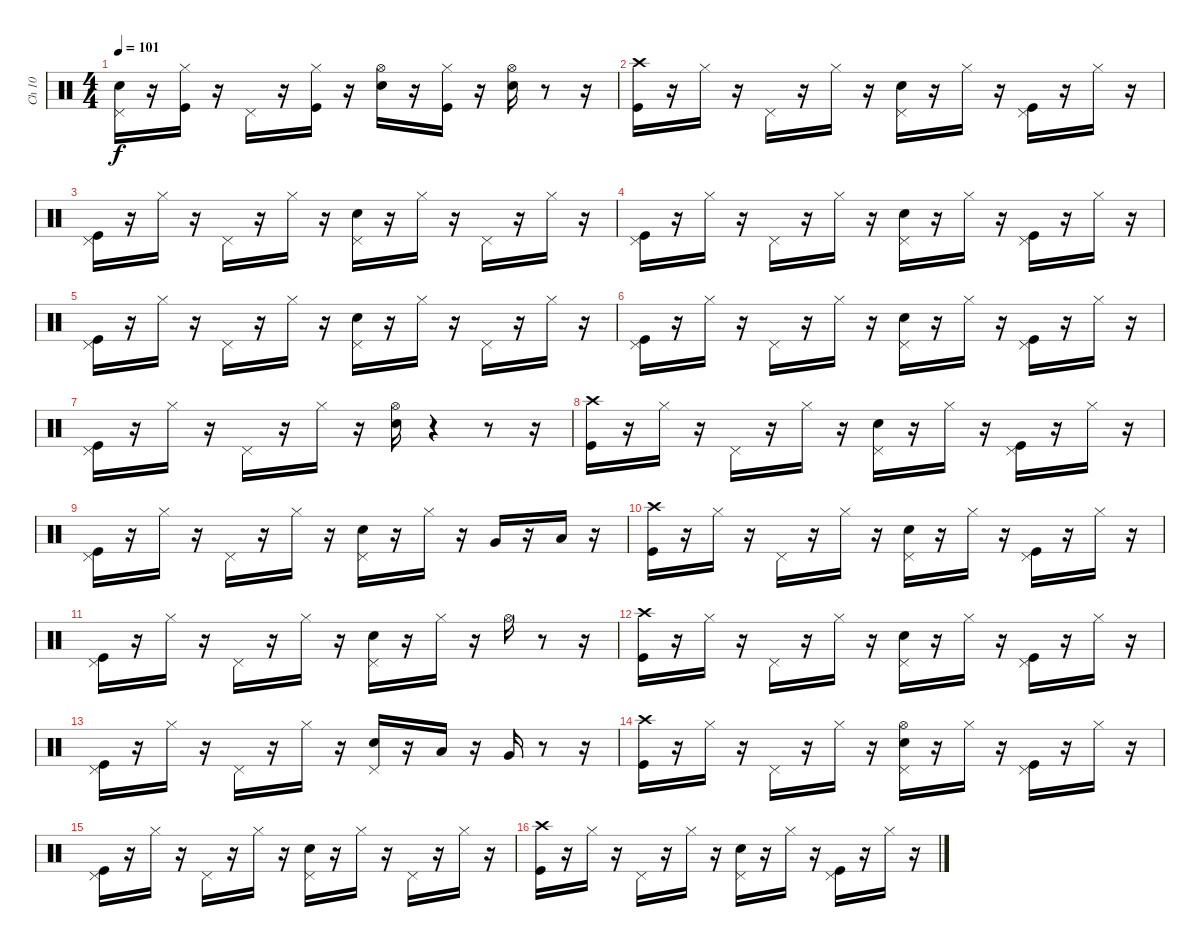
\track ("Ch 10   " "Ch 10   ") {instrument percussion}
\staff {score}
\articulation defaults
\ts (4 4)
\tempo 101
\clef neutral
\ks c
("Snare (hit) 2" "Pedal Hi-Hat (hit)").16{dy f} r.16 ("Kick (hit)" "Hi-Hat (closed)").16 r.16 "Pedal Hi-Hat (hit)".16 r.16 ("Kick (hit)" "Hi-Hat (closed)").16 r.16 ("Snare (hit) 2" "Hi-Hat (open)").16 r.16 ("Kick (hit)" "Hi-Hat (closed)").16 r.16 ("Snare (hit) 2" "Hi-Hat (open)").16 r.8 r.16 |
("Kick (hit)" "Crash high (hit)").16 r.16 "Hi-Hat (closed)".16 r.16 "Pedal Hi-Hat (hit)".16 r.16 "Hi-Hat (closed)".16 r.16 ("Snare (hit) 2" "Pedal Hi-Hat (hit)").16 r.16 "Hi-Hat (closed)".16 r.16 ("Pedal Hi-Hat (hit)" "Kick (hit)").16 r.16 "Hi-Hat (closed)".16 r.16 |
("Kick (hit)" "Pedal Hi-Hat (hit)").16 r.16 "Hi-Hat (closed)".16 r.16 "Pedal Hi-Hat (hit)".16 r.16 "Hi-Hat (closed)".16 r.16 ("Snare (hit) 2" "Pedal Hi-Hat (hit)").16 r.16 "Hi-Hat (closed)".16 r.16 "Pedal Hi-Hat (hit)".16 r.16 "Hi-Hat (closed)".16 r.16 |
("Kick (hit)" "Pedal Hi-Hat (hit)").16 r.16 "Hi-Hat (closed)".16 r.16 "Pedal Hi-Hat (hit)".16 r.16 "Hi-Hat (closed)".16 r.16 ("Snare (hit) 2" "Pedal Hi-Hat (hit)").16 r.16 "Hi-Hat (closed)".16 r.16 ("Kick (hit)" "Pedal Hi-Hat (hit)").16 r.16 "Hi-Hat (closed)".16 r.16 |
("Pedal Hi-Hat (hit)" "Kick (hit)").16 r.16 "Hi-Hat (closed)".16 r.16 "Pedal Hi-Hat (hit)".16 r.16 "Hi-Hat (closed)".16 r.16 ("Pedal Hi-Hat (hit)" "Snare (hit) 2").16 r.16 "Hi-Hat (closed)".16 r.16 "Pedal Hi-Hat (hit)".16 r.16 "Hi-Hat (closed)".16 r.16 |
("Kick (hit)" "Pedal Hi-Hat (hit)").16 r.16 "Hi-Hat (closed)".16 r.16 "Pedal Hi-Hat (hit)".16 r.16 "Hi-Hat (closed)".16 r.16 ("Snare (hit) 2" "Pedal Hi-Hat (hit)").16 r.16 "Hi-Hat (closed)".16 r.16 ("Pedal Hi-Hat (hit)" "Kick (hit)").16 r.16 "Hi-Hat (closed)".16 r.16 |
("Pedal Hi-Hat (hit)" "Kick (hit)").16 r.16 "Hi-Hat (closed)".16 r.16 "Pedal Hi-Hat (hit)".16 r.16 "Hi-Hat (closed)".16 r.16 ("Hi-Hat (open)" "Snare (hit) 2").16 r.4 r.8 r.16 |
("Crash high (hit)" "Kick (hit)").16 r.16 "Hi-Hat (closed)".16 r.16 "Pedal Hi-Hat (hit)".16 r.16 "Hi-Hat (closed)".16 r.16 ("Snare (hit) 2" "Pedal Hi-Hat (hit)").16 r.16 "Hi-Hat (closed)".16 r.16 ("Kick (hit)" "Pedal Hi-Hat (hit)").16 r.16 "Hi-Hat (closed)".16 r.16 |
("Kick (hit)" "Pedal Hi-Hat (hit)").16 r.16 "Hi-Hat (closed)".16 r.16 "Pedal Hi-Hat (hit)".16 r.16 "Hi-Hat (closed)".16 r.16 ("Snare (hit) 2" "Pedal Hi-Hat (hit)").16 r.16 "Hi-Hat (closed)".16 r.16 "Very Low Tom (hit)".16 r.16 "Low Floor Tom (hit)".16 r.16 |
("Kick (hit)" "Crash high (hit)").16 r.16 "Hi-Hat (closed)".16 r.16 "Pedal Hi-Hat (hit)".16 r.16 "Hi-Hat (closed)".16 r.16 ("Snare (hit) 2" "Pedal Hi-Hat (hit)").16 r.16 "Hi-Hat (closed)".16 r.16 ("Kick (hit)" "Pedal Hi-Hat (hit)").16 r.16 "Hi-Hat (closed)".16 r.16 |
("Kick (hit)" "Pedal Hi-Hat (hit)").16 r.16 "Hi-Hat (closed)".16 r.16 "Pedal Hi-Hat (hit)".16 r.16 "Hi-Hat (closed)".16 r.16 ("Snare (hit) 2" "Pedal Hi-Hat (hit)").16 r.16 "Hi-Hat (closed)".16 r.16 "Hi-Hat (open)".16 r.8 r.16 |
("Kick (hit)" "Crash high (hit)").16 r.16 "Hi-Hat (closed)".16 r.16 "Pedal Hi-Hat (hit)".16 r.16 "Hi-Hat (closed)".16 r.16 ("Snare (hit) 2" "Pedal Hi-Hat (hit)").16 r.16 "Hi-Hat (closed)".16 r.16 ("Kick (hit)" "Pedal Hi-Hat (hit)").16 r.16 "Hi-Hat (closed)".16 r.16 |
("Kick (hit)" "Pedal Hi-Hat (hit)").16 r.16 "Hi-Hat (closed)".16 r.16 "Pedal Hi-Hat (hit)".16 r.16 "Hi-Hat (closed)".16 r.16 ("Snare (hit) 2" "Pedal Hi-Hat (hit)").16 r.16 "Low Tom (hit)".16 r.16 "Very Low Tom (hit)".16 r.8 r.16 |
("Kick (hit)" "Crash high (hit)").16 r.16 "Hi-Hat (closed)".16 r.16 "Pedal Hi-Hat (hit)".16 r.16 "Hi-Hat (closed)".16 r.16 ("Pedal Hi-Hat (hit)" "Snare (hit) 2" "Hi-Hat (open)").16 r.16 "Hi-Hat (closed)".16 r.16 ("Pedal Hi-Hat (hit)" "Kick (hit)").16 r.16 "Hi-Hat (closed)".16 r.16 |
("Kick (hit)" "Pedal Hi-Hat (hit)").16 r.16 "Hi-Hat (closed)".16 r.16 "Pedal Hi-Hat (hit)".16 r.16 "Hi-Hat (closed)".16 r.16 ("Snare (hit) 2" "Pedal Hi-Hat (hit)").16 r.16 "Hi-Hat (closed)".16 r.16 "Pedal Hi-Hat (hit)".16 r.16 "Hi-Hat (closed)".16 r.16 |
("Kick (hit)" "Crash high (hit)").16 r.16 "Hi-Hat (closed)".16 r.16 "Pedal Hi-Hat (hit)".16 r.16 "Hi-Hat (closed)".16 r.16 ("Snare (hit) 2" "Pedal Hi-Hat (hit)").16 r.16 "Hi-Hat (closed)".16 r.16 ("Pedal Hi-Hat (hit)" "Kick (hit)").16 r.16 "Hi-Hat (closed)".16 r.16
